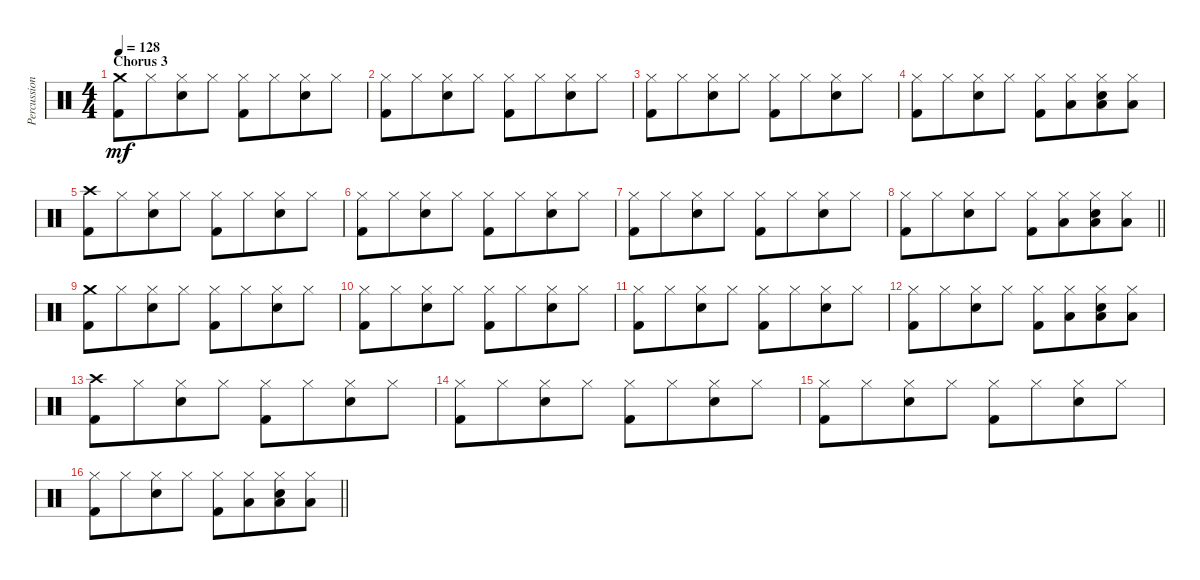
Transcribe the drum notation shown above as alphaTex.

\track ("Percussion" "Percussion") {instrument percussion}
\staff {score}
\articulation defaults
\ts (4 4)
\section ("" "Chorus 3")
\tempo 128
\clef neutral
\ks c
("Crash medium (hit)" "Kick (hit) 2").8{dy mf} "Hi-Hat (closed)".8{beam merge} ("Hi-Hat (closed)" "Snare (hit) 2").8 "Hi-Hat (closed)".8 ("Hi-Hat (closed)" "Kick (hit) 2").8 "Hi-Hat (closed)".8{beam merge} ("Hi-Hat (closed)" "Snare (hit) 2").8 "Hi-Hat (closed)".8 |
("Hi-Hat (closed)" "Kick (hit) 2").8 "Hi-Hat (closed)".8{beam merge} ("Hi-Hat (closed)" "Snare (hit) 2").8 "Hi-Hat (closed)".8 ("Hi-Hat (closed)" "Kick (hit) 2").8 "Hi-Hat (closed)".8{beam merge} ("Hi-Hat (closed)" "Snare (hit) 2").8 "Hi-Hat (closed)".8 |
("Hi-Hat (closed)" "Kick (hit) 2").8 "Hi-Hat (closed)".8{beam merge} ("Hi-Hat (closed)" "Snare (hit) 2").8 "Hi-Hat (closed)".8 ("Hi-Hat (closed)" "Kick (hit) 2").8 "Hi-Hat (closed)".8{beam merge} ("Hi-Hat (closed)" "Snare (hit) 2").8 "Hi-Hat (closed)".8 |
("Hi-Hat (closed)" "Kick (hit) 2").8 "Hi-Hat (closed)".8{beam merge} ("Hi-Hat (closed)" "Snare (hit) 2").8 "Hi-Hat (closed)".8 ("Hi-Hat (closed)" "Kick (hit) 2").8 ("Hi-Hat (closed)" "Low Tom (hit)").8{beam merge} ("Hi-Hat (closed)" "Low Tom (hit)" "Snare (hit) 2").8 ("Hi-Hat (closed)" "Low Tom (hit)").8 |
("Crash high (hit)" "Kick (hit) 2").8 "Hi-Hat (closed)".8{beam merge} ("Hi-Hat (closed)" "Snare (hit) 2").8 "Hi-Hat (closed)".8 ("Hi-Hat (closed)" "Kick (hit) 2").8 "Hi-Hat (closed)".8{beam merge} ("Hi-Hat (closed)" "Snare (hit) 2").8 "Hi-Hat (closed)".8 |
("Hi-Hat (closed)" "Kick (hit) 2").8 "Hi-Hat (closed)".8{beam merge} ("Hi-Hat (closed)" "Snare (hit) 2").8 "Hi-Hat (closed)".8 ("Hi-Hat (closed)" "Kick (hit) 2").8 "Hi-Hat (closed)".8{beam merge} ("Hi-Hat (closed)" "Snare (hit) 2").8 "Hi-Hat (closed)".8 |
("Hi-Hat (closed)" "Kick (hit) 2").8 "Hi-Hat (closed)".8{beam merge} ("Hi-Hat (closed)" "Snare (hit) 2").8 "Hi-Hat (closed)".8 ("Hi-Hat (closed)" "Kick (hit) 2").8 "Hi-Hat (closed)".8{beam merge} ("Hi-Hat (closed)" "Snare (hit) 2").8 "Hi-Hat (closed)".8 |
\barLineRight lightlight
("Hi-Hat (closed)" "Kick (hit) 2").8 "Hi-Hat (closed)".8{beam merge} ("Hi-Hat (closed)" "Snare (hit) 2").8 "Hi-Hat (closed)".8 ("Hi-Hat (closed)" "Kick (hit) 2").8 ("Hi-Hat (closed)" "Low Tom (hit)").8{beam merge} ("Hi-Hat (closed)" "Low Tom (hit)" "Snare (hit) 2").8 ("Hi-Hat (closed)" "Low Tom (hit)").8 |
\section ("" "")
("Crash medium (hit)" "Kick (hit) 2").8 "Hi-Hat (closed)".8{beam merge} ("Hi-Hat (closed)" "Snare (hit) 2").8 "Hi-Hat (closed)".8 ("Hi-Hat (closed)" "Kick (hit) 2").8 "Hi-Hat (closed)".8{beam merge} ("Hi-Hat (closed)" "Snare (hit) 2").8 "Hi-Hat (closed)".8 |
("Hi-Hat (closed)" "Kick (hit) 2").8 "Hi-Hat (closed)".8{beam merge} ("Hi-Hat (closed)" "Snare (hit) 2").8 "Hi-Hat (closed)".8 ("Hi-Hat (closed)" "Kick (hit) 2").8 "Hi-Hat (closed)".8{beam merge} ("Hi-Hat (closed)" "Snare (hit) 2").8 "Hi-Hat (closed)".8 |
("Hi-Hat (closed)" "Kick (hit) 2").8 "Hi-Hat (closed)".8{beam merge} ("Hi-Hat (closed)" "Snare (hit) 2").8 "Hi-Hat (closed)".8 ("Hi-Hat (closed)" "Kick (hit) 2").8 "Hi-Hat (closed)".8{beam merge} ("Hi-Hat (closed)" "Snare (hit) 2").8 "Hi-Hat (closed)".8 |
("Hi-Hat (closed)" "Kick (hit) 2").8 "Hi-Hat (closed)".8{beam merge} ("Hi-Hat (closed)" "Snare (hit) 2").8 "Hi-Hat (closed)".8 ("Hi-Hat (closed)" "Kick (hit) 2").8 ("Hi-Hat (closed)" "Low Tom (hit)").8{beam merge} ("Hi-Hat (closed)" "Low Tom (hit)" "Snare (hit) 2").8 ("Hi-Hat (closed)" "Low Tom (hit)").8 |
("Crash high (hit)" "Kick (hit) 2").8 "Hi-Hat (closed)".8{beam merge} ("Hi-Hat (closed)" "Snare (hit) 2").8 "Hi-Hat (closed)".8 ("Hi-Hat (closed)" "Kick (hit) 2").8 "Hi-Hat (closed)".8{beam merge} ("Hi-Hat (closed)" "Snare (hit) 2").8 "Hi-Hat (closed)".8 |
("Hi-Hat (closed)" "Kick (hit) 2").8 "Hi-Hat (closed)".8{beam merge} ("Hi-Hat (closed)" "Snare (hit) 2").8 "Hi-Hat (closed)".8 ("Hi-Hat (closed)" "Kick (hit) 2").8 "Hi-Hat (closed)".8{beam merge} ("Hi-Hat (closed)" "Snare (hit) 2").8 "Hi-Hat (closed)".8 |
("Hi-Hat (closed)" "Kick (hit) 2").8 "Hi-Hat (closed)".8{beam merge} ("Hi-Hat (closed)" "Snare (hit) 2").8 "Hi-Hat (closed)".8 ("Hi-Hat (closed)" "Kick (hit) 2").8 "Hi-Hat (closed)".8{beam merge} ("Hi-Hat (closed)" "Snare (hit) 2").8 "Hi-Hat (closed)".8 |
\barLineRight lightlight
("Hi-Hat (closed)" "Kick (hit) 2").8 "Hi-Hat (closed)".8{beam merge} ("Hi-Hat (closed)" "Snare (hit) 2").8 "Hi-Hat (closed)".8 ("Hi-Hat (closed)" "Kick (hit) 2").8 ("Hi-Hat (closed)" "Low Tom (hit)").8{beam merge} ("Hi-Hat (closed)" "Low Tom (hit)" "Snare (hit) 2").8 ("Hi-Hat (closed)" "Low Tom (hit)").8
